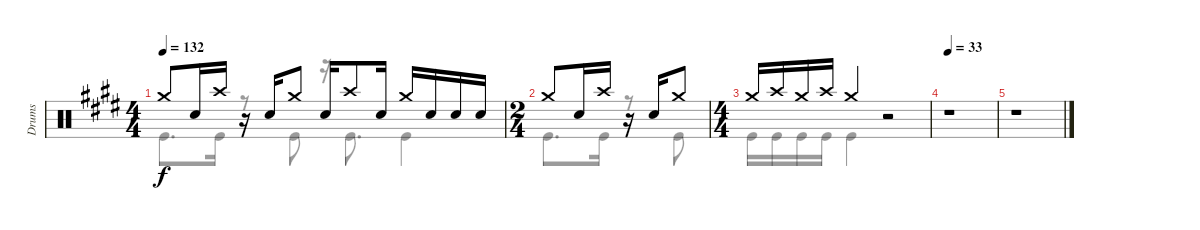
\track ("Drums" "Drums") {instrument percussion}
\staff {score}
\articulation defaults
\voice
\ts (4 4)
\tempo 132
\clef neutral
\ks c#minor "Crash medium (hit)".8{dy f} "Electric Snare (hit)".16 "Crash high (hit)".16
r.16 "Electric Snare (hit)".16 "Crash medium (hit)".8 "Electric Snare (hit)".16 "Crash high (hit)".8 "Electric Snare (hit)".16 "Crash medium (hit)".16 "Electric Snare (hit)".16 "Electric Snare (hit)".16 "Electric Snare (hit)".16 |
\ts (2 4)
"Crash medium (hit)".8 "Electric Snare (hit)".16 "Crash high (hit)".16 r.16 "Electric Snare (hit)".16 "Crash medium (hit)".8 |
\ts (4 4)
"Crash medium (hit)".16 "Crash high (hit)".16 "Crash medium (hit)".16 "Crash high (hit)".16 "Crash medium (hit)".4 r.2 |
\tempo 33
r.1 |
r.1
\voice
\clef neutral
\ottava regular
\simile none
\ks c#minor "Kick (hit)".8{d dy f} "Kick (hit)".16
r.8 "Kick (hit)".8 r.16 "Kick (hit)".8{d} "Kick (hit)".4 |
"Kick (hit)".8{d} "Kick (hit)".16 r.8 "Kick (hit)".8 |
"Kick (hit)".16 "Kick (hit)".16 "Kick (hit)".16 "Kick (hit)".16 "Kick (hit)".4 r.2 |
r.1 |
r.1
